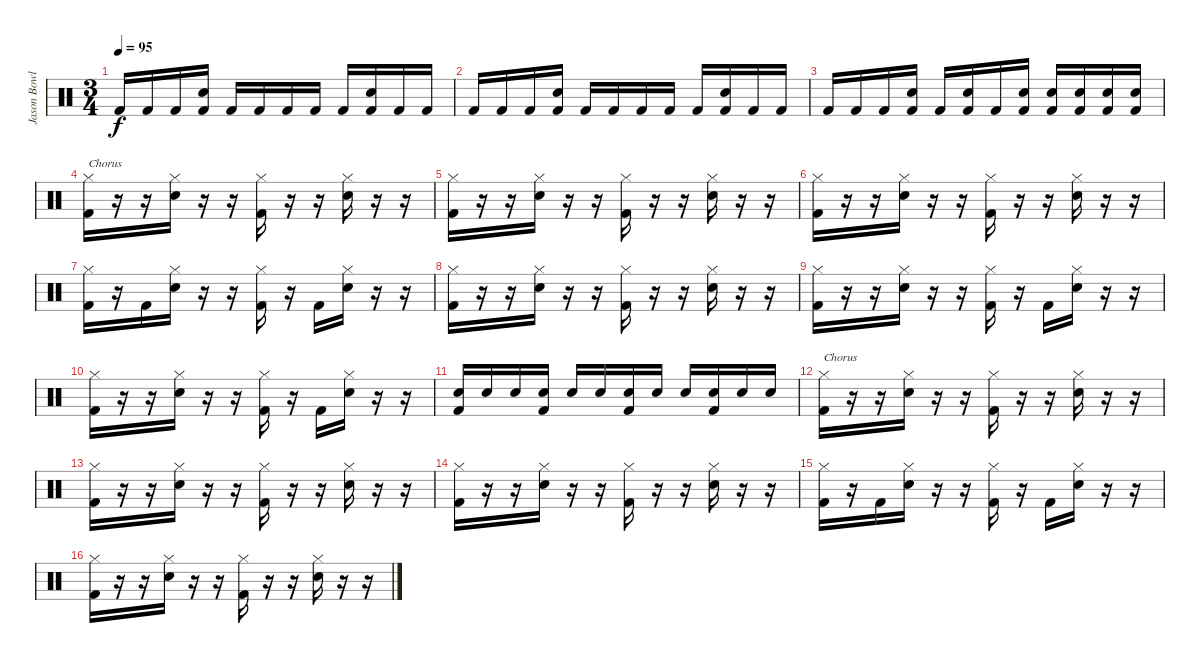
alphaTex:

\track ("Jason Bowld" "Jason Bowl") {instrument percussion}
\staff {score}
\articulation defaults
\ts (3 4)
\tempo 95
\clef neutral
\ks c "Kick (hit) 2".16{dy f} "Kick (hit) 2".16 "Kick (hit) 2".16
("Kick (hit) 2" "Snare (hit) 2").16 "Kick (hit) 2".16 "Kick (hit) 2".16 "Kick (hit) 2".16 "Kick (hit) 2".16 "Kick (hit) 2".16 ("Kick (hit) 2" "Snare (hit) 2").16 "Kick (hit) 2".16 "Kick (hit) 2".16 |
"Kick (hit) 2".16 "Kick (hit) 2".16 "Kick (hit) 2".16 ("Kick (hit) 2" "Snare (hit) 2").16 "Kick (hit) 2".16 "Kick (hit) 2".16 "Kick (hit) 2".16 "Kick (hit) 2".16 "Kick (hit) 2".16 ("Kick (hit) 2" "Snare (hit) 2").16 "Kick (hit) 2".16 "Kick (hit) 2".16 |
"Kick (hit) 2".16 "Kick (hit) 2".16 "Kick (hit) 2".16 ("Kick (hit) 2" "Snare (hit) 2").16 "Kick (hit) 2".16 ("Kick (hit) 2" "Snare (hit) 2").16 "Kick (hit) 2".16 ("Kick (hit) 2" "Snare (hit) 2").16 ("Kick (hit) 2" "Snare (hit) 2").16 ("Kick (hit) 2" "Snare (hit) 2").16 ("Kick (hit) 2" "Snare (hit) 2").16 ("Kick (hit) 2" "Snare (hit) 2").16 |
("Hi-Hat (closed)" "Kick (hit) 2").16{txt "Chorus"} r.16 r.16 ("Hi-Hat (closed)" "Snare (hit) 2").16 r.16 r.16 ("Hi-Hat (closed)" "Kick (hit) 2").16 r.16 r.16 ("Hi-Hat (closed)" "Snare (hit) 2").16 r.16 r.16 |
("Hi-Hat (closed)" "Kick (hit) 2").16 r.16 r.16 ("Hi-Hat (closed)" "Snare (hit) 2").16 r.16 r.16 ("Hi-Hat (closed)" "Kick (hit) 2").16 r.16 r.16 ("Hi-Hat (closed)" "Snare (hit) 2").16 r.16 r.16 |
("Hi-Hat (closed)" "Kick (hit) 2").16 r.16 r.16 ("Hi-Hat (closed)" "Snare (hit) 2").16 r.16 r.16 ("Hi-Hat (closed)" "Kick (hit) 2").16 r.16 r.16 ("Hi-Hat (closed)" "Snare (hit) 2").16 r.16 r.16 |
("Hi-Hat (closed)" "Kick (hit) 2").16 r.16 "Kick (hit) 2".16 ("Hi-Hat (closed)" "Snare (hit) 2").16 r.16 r.16 ("Hi-Hat (closed)" "Kick (hit) 2").16 r.16 "Kick (hit) 2".16 ("Hi-Hat (closed)" "Snare (hit) 2").16 r.16 r.16 |
("Hi-Hat (closed)" "Kick (hit) 2").16 r.16 r.16 ("Hi-Hat (closed)" "Snare (hit) 2").16 r.16 r.16 ("Hi-Hat (closed)" "Kick (hit) 2").16 r.16 r.16 ("Hi-Hat (closed)" "Snare (hit) 2").16 r.16 r.16 |
("Hi-Hat (closed)" "Kick (hit) 2").16 r.16 r.16 ("Hi-Hat (closed)" "Snare (hit) 2").16 r.16 r.16 ("Hi-Hat (closed)" "Kick (hit) 2").16 r.16 "Kick (hit) 2".16 ("Hi-Hat (closed)" "Snare (hit) 2").16 r.16 r.16 |
("Hi-Hat (closed)" "Kick (hit) 2").16 r.16 r.16 ("Hi-Hat (closed)" "Snare (hit) 2").16 r.16 r.16 ("Hi-Hat (closed)" "Kick (hit) 2").16 r.16 "Kick (hit) 2".16 ("Hi-Hat (closed)" "Snare (hit) 2").16 r.16 r.16 |
("Kick (hit) 2" "Snare (hit) 2").16 "Snare (hit) 2".16 "Snare (hit) 2".16 ("Kick (hit) 2" "Snare (hit) 2").16 "Snare (hit) 2".16 "Snare (hit) 2".16 ("Kick (hit) 2" "Snare (hit) 2").16 "Snare (hit) 2".16 "Snare (hit) 2".16 ("Kick (hit) 2" "Snare (hit) 2").16 "Snare (hit) 2".16 "Snare (hit) 2".16 |
("Hi-Hat (closed)" "Kick (hit) 2").16{txt "Chorus"} r.16 r.16 ("Hi-Hat (closed)" "Snare (hit) 2").16 r.16 r.16 ("Hi-Hat (closed)" "Kick (hit) 2").16 r.16 r.16 ("Hi-Hat (closed)" "Snare (hit) 2").16 r.16 r.16 |
("Hi-Hat (closed)" "Kick (hit) 2").16 r.16 r.16 ("Hi-Hat (closed)" "Snare (hit) 2").16 r.16 r.16 ("Hi-Hat (closed)" "Kick (hit) 2").16 r.16 r.16 ("Hi-Hat (closed)" "Snare (hit) 2").16 r.16 r.16 |
("Hi-Hat (closed)" "Kick (hit) 2").16 r.16 r.16 ("Hi-Hat (closed)" "Snare (hit) 2").16 r.16 r.16 ("Hi-Hat (closed)" "Kick (hit) 2").16 r.16 r.16 ("Hi-Hat (closed)" "Snare (hit) 2").16 r.16 r.16 |
("Hi-Hat (closed)" "Kick (hit) 2").16 r.16 "Kick (hit) 2".16 ("Hi-Hat (closed)" "Snare (hit) 2").16 r.16 r.16 ("Hi-Hat (closed)" "Kick (hit) 2").16 r.16 "Kick (hit) 2".16 ("Hi-Hat (closed)" "Snare (hit) 2").16 r.16 r.16 |
("Hi-Hat (closed)" "Kick (hit) 2").16 r.16 r.16 ("Hi-Hat (closed)" "Snare (hit) 2").16 r.16 r.16 ("Hi-Hat (closed)" "Kick (hit) 2").16 r.16 r.16 ("Hi-Hat (closed)" "Snare (hit) 2").16 r.16 r.16
